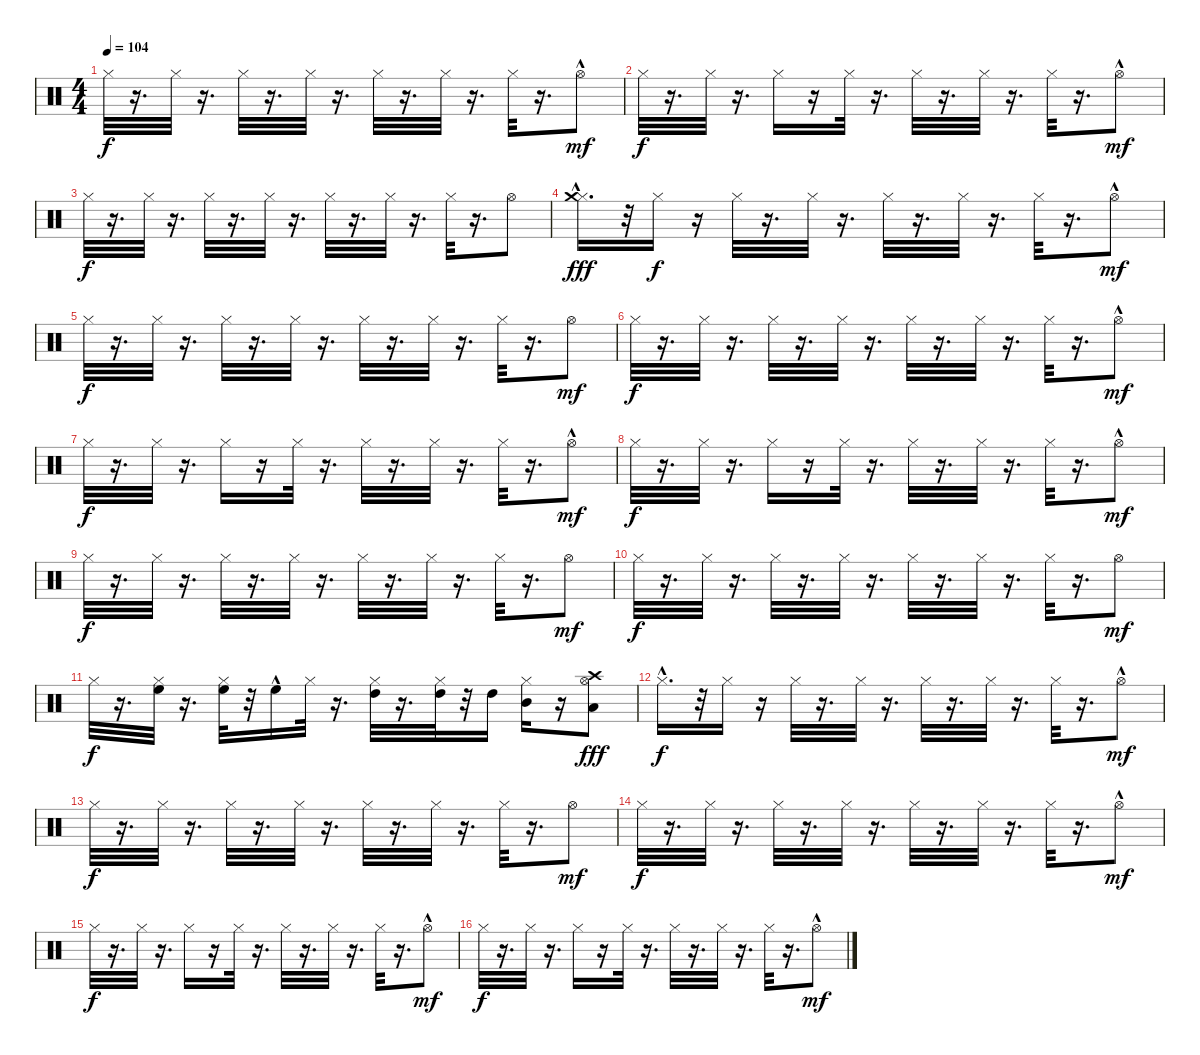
\track "" {instrument percussion}
\staff {score}
\articulation defaults
\ts (4 4)
\tempo 104
\clef neutral
\ks c "Hi-Hat (closed)".32{dy f}
r.16{d} "Hi-Hat (closed)".32 r.16{d} "Hi-Hat (closed)".32 r.16{d} "Hi-Hat (closed)".32 r.16{d} "Hi-Hat (closed)".32 r.16{d} "Hi-Hat (closed)".32 r.16{d} "Hi-Hat (closed)".32 r.16{d} "Hi-Hat (open)"{hac}.8{dy mf} |
"Hi-Hat (closed)".32{dy f} r.16{d} "Hi-Hat (closed)".32 r.16{d} "Hi-Hat (closed)".16 r.16 "Hi-Hat (closed)".32 r.16{d} "Hi-Hat (closed)".32 r.16{d} "Hi-Hat (closed)".32 r.16{d} "Hi-Hat (closed)".32 r.16{d} "Hi-Hat (open)"{hac}.8{dy mf} |
"Hi-Hat (closed)".32{dy f} r.16{d} "Hi-Hat (closed)".32 r.16{d} "Hi-Hat (closed)".32 r.16{d} "Hi-Hat (closed)".32 r.16{d} "Hi-Hat (closed)".32 r.16{d} "Hi-Hat (closed)".32 r.16{d} "Hi-Hat (closed)".32 r.16{d} "Hi-Hat (open)".8 |
("Hi-Hat (closed)"{hac} "Crash medium (hit)"{hac}).16{d dy fff} r.32 "Hi-Hat (closed)".16{dy f} r.16 "Hi-Hat (closed)".32 r.16{d} "Hi-Hat (closed)".32 r.16{d} "Hi-Hat (closed)".32 r.16{d} "Hi-Hat (closed)".32 r.16{d} "Hi-Hat (closed)".32 r.16{d} "Hi-Hat (open)"{hac}.8{dy mf} |
"Hi-Hat (closed)".32{dy f} r.16{d} "Hi-Hat (closed)".32 r.16{d} "Hi-Hat (closed)".32 r.16{d} "Hi-Hat (closed)".32 r.16{d} "Hi-Hat (closed)".32 r.16{d} "Hi-Hat (closed)".32 r.16{d} "Hi-Hat (closed)".32 r.16{d} "Hi-Hat (open)".8{dy mf} |
"Hi-Hat (closed)".32{dy f} r.16{d} "Hi-Hat (closed)".32 r.16{d} "Hi-Hat (closed)".32 r.16{d} "Hi-Hat (closed)".32 r.16{d} "Hi-Hat (closed)".32 r.16{d} "Hi-Hat (closed)".32 r.16{d} "Hi-Hat (closed)".32 r.16{d} "Hi-Hat (open)"{hac}.8{dy mf} |
"Hi-Hat (closed)".32{dy f} r.16{d} "Hi-Hat (closed)".32 r.16{d} "Hi-Hat (closed)".16 r.16 "Hi-Hat (closed)".32 r.16{d} "Hi-Hat (closed)".32 r.16{d} "Hi-Hat (closed)".32 r.16{d} "Hi-Hat (closed)".32 r.16{d} "Hi-Hat (open)"{hac}.8{dy mf} |
"Hi-Hat (closed)".32{dy f} r.16{d} "Hi-Hat (closed)".32 r.16{d} "Hi-Hat (closed)".16 r.16 "Hi-Hat (closed)".32 r.16{d} "Hi-Hat (closed)".32 r.16{d} "Hi-Hat (closed)".32 r.16{d} "Hi-Hat (closed)".32 r.16{d} "Hi-Hat (open)"{hac}.8{dy mf} |
"Hi-Hat (closed)".32{dy f} r.16{d} "Hi-Hat (closed)".32 r.16{d} "Hi-Hat (closed)".32 r.16{d} "Hi-Hat (closed)".32 r.16{d} "Hi-Hat (closed)".32 r.16{d} "Hi-Hat (closed)".32 r.16{d} "Hi-Hat (closed)".32 r.16{d} "Hi-Hat (open)".8{dy mf} |
"Hi-Hat (closed)".32{dy f} r.16{d} "Hi-Hat (closed)".32 r.16{d} "Hi-Hat (closed)".32 r.16{d} "Hi-Hat (closed)".32 r.16{d} "Hi-Hat (closed)".32 r.16{d} "Hi-Hat (closed)".32 r.16{d} "Hi-Hat (closed)".32 r.16{d} "Hi-Hat (open)".8{dy mf} |
"Hi-Hat (closed)".32{dy f} r.16{d} ("Hi-Hat (closed)" "High Floor Tom (hit)").32 r.16{d} ("Hi-Hat (closed)" "High Floor Tom (hit)").32 r.32 "High Floor Tom (hit)"{hac}.16 "Hi-Hat (closed)".32 r.16{d} ("Hi-Hat (closed)" "High Tom (hit)").32 r.16{d} ("Hi-Hat (closed)" "High Tom (hit)").32 r.32 "High Tom (hit)".16 ("Hi-Hat (closed)" "Mid Tom (hit)").16 r.16 ("Hi-Hat (open)" "Low Tom (hit)" "Crash high (hit)").8{dy fff} |
"Hi-Hat (closed)"{hac}.16{d dy f} r.32 "Hi-Hat (closed)".16 r.16 "Hi-Hat (closed)".32 r.16{d} "Hi-Hat (closed)".32 r.16{d} "Hi-Hat (closed)".32 r.16{d} "Hi-Hat (closed)".32 r.16{d} "Hi-Hat (closed)".32 r.16{d} "Hi-Hat (open)"{hac}.8{dy mf} |
"Hi-Hat (closed)".32{dy f} r.16{d} "Hi-Hat (closed)".32 r.16{d} "Hi-Hat (closed)".32 r.16{d} "Hi-Hat (closed)".32 r.16{d} "Hi-Hat (closed)".32 r.16{d} "Hi-Hat (closed)".32 r.16{d} "Hi-Hat (closed)".32 r.16{d} "Hi-Hat (open)".8{dy mf} |
"Hi-Hat (closed)".32{dy f} r.16{d} "Hi-Hat (closed)".32 r.16{d} "Hi-Hat (closed)".32 r.16{d} "Hi-Hat (closed)".32 r.16{d} "Hi-Hat (closed)".32 r.16{d} "Hi-Hat (closed)".32 r.16{d} "Hi-Hat (closed)".32 r.16{d} "Hi-Hat (open)"{hac}.8{dy mf} |
"Hi-Hat (closed)".32{dy f} r.16{d} "Hi-Hat (closed)".32 r.16{d} "Hi-Hat (closed)".16 r.16 "Hi-Hat (closed)".32 r.16{d} "Hi-Hat (closed)".32 r.16{d} "Hi-Hat (closed)".32 r.16{d} "Hi-Hat (closed)".32 r.16{d} "Hi-Hat (open)"{hac}.8{dy mf} |
"Hi-Hat (closed)".32{dy f} r.16{d} "Hi-Hat (closed)".32 r.16{d} "Hi-Hat (closed)".16 r.16 "Hi-Hat (closed)".32 r.16{d} "Hi-Hat (closed)".32 r.16{d} "Hi-Hat (closed)".32 r.16{d} "Hi-Hat (closed)".32 r.16{d} "Hi-Hat (open)"{hac}.8{dy mf}
